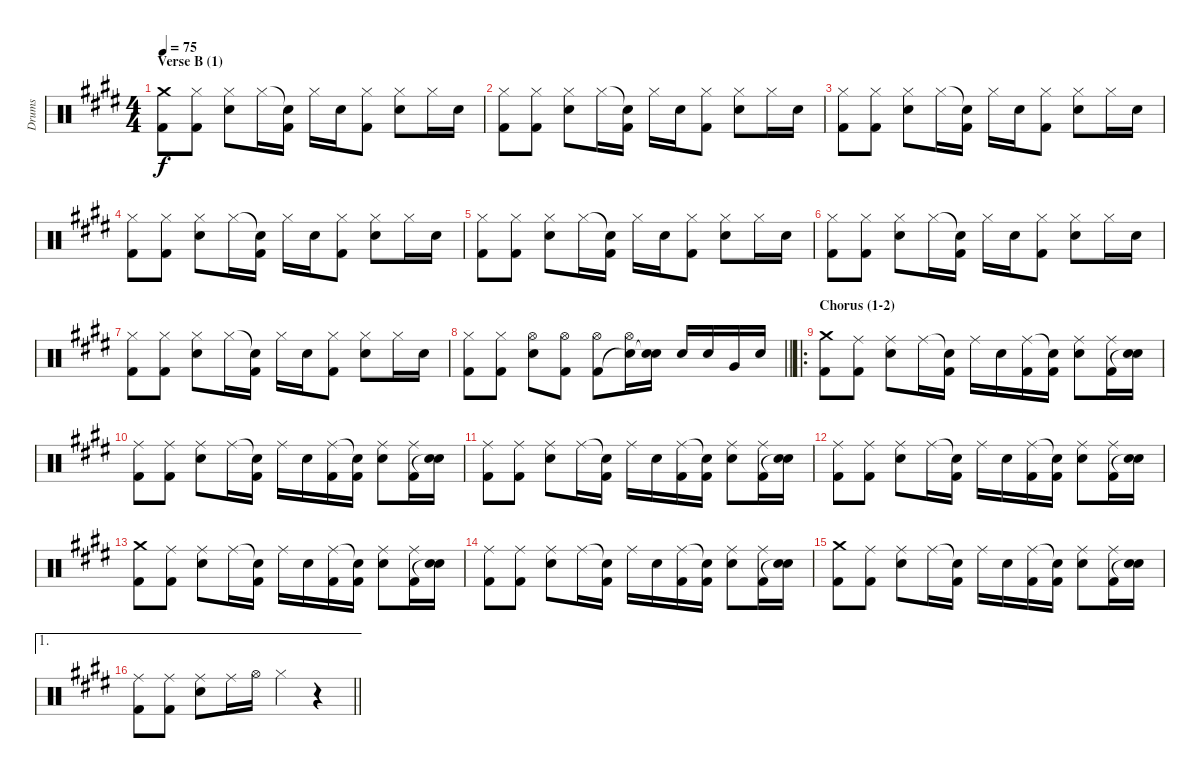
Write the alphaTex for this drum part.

\track ("Drums" "Drums") {instrument percussion}
\staff {score}
\articulation defaults
\ts (4 4)
\section ("" "Verse B (1)")
\tempo 75
\clef neutral
\ks c#minor
("Crash medium (hit)" "Kick (hit) 2").8{dy f} ("Hi-Hat (closed)" "Kick (hit) 2").8 ("Hi-Hat (closed)" "Electric Snare (hit)").8 "Hi-Hat (closed)".16 ("Snare (hit)"{t} "Kick (hit) 2").16 "Hi-Hat (closed)".16 "Electric Snare (hit)".16 ("Hi-Hat (closed)" "Kick (hit) 2").8 ("Hi-Hat (closed)" "Electric Snare (hit)").8 "Hi-Hat (closed)".16 "Electric Snare (hit)".16 |
("Hi-Hat (closed)" "Kick (hit) 2").8 ("Hi-Hat (closed)" "Kick (hit) 2").8 ("Hi-Hat (closed)" "Electric Snare (hit)").8 "Hi-Hat (closed)".16 ("Snare (hit)"{t} "Kick (hit) 2").16 "Hi-Hat (closed)".16 "Electric Snare (hit)".16 ("Hi-Hat (closed)" "Kick (hit) 2").8 ("Hi-Hat (closed)" "Electric Snare (hit)").8 "Hi-Hat (closed)".16 "Electric Snare (hit)".16 |
("Hi-Hat (closed)" "Kick (hit) 2").8 ("Hi-Hat (closed)" "Kick (hit) 2").8 ("Hi-Hat (closed)" "Electric Snare (hit)").8 "Hi-Hat (closed)".16 ("Snare (hit)"{t} "Kick (hit) 2").16 "Hi-Hat (closed)".16 "Electric Snare (hit)".16 ("Hi-Hat (closed)" "Kick (hit) 2").8 ("Hi-Hat (closed)" "Electric Snare (hit)").8 "Hi-Hat (closed)".16 "Electric Snare (hit)".16 |
("Hi-Hat (closed)" "Kick (hit) 2").8 ("Hi-Hat (closed)" "Kick (hit) 2").8 ("Hi-Hat (closed)" "Electric Snare (hit)").8 "Hi-Hat (closed)".16 ("Snare (hit)"{t} "Kick (hit) 2").16 "Hi-Hat (closed)".16 "Electric Snare (hit)".16 ("Hi-Hat (closed)" "Kick (hit) 2").8 ("Hi-Hat (closed)" "Electric Snare (hit)").8 "Hi-Hat (closed)".16 "Electric Snare (hit)".16 |
("Hi-Hat (closed)" "Kick (hit) 2").8 ("Hi-Hat (closed)" "Kick (hit) 2").8 ("Hi-Hat (closed)" "Electric Snare (hit)").8 "Hi-Hat (closed)".16 ("Snare (hit)"{t} "Kick (hit) 2").16 "Hi-Hat (closed)".16 "Electric Snare (hit)".16 ("Hi-Hat (closed)" "Kick (hit) 2").8 ("Hi-Hat (closed)" "Electric Snare (hit)").8 "Hi-Hat (closed)".16 "Electric Snare (hit)".16 |
("Hi-Hat (closed)" "Kick (hit) 2").8 ("Hi-Hat (closed)" "Kick (hit) 2").8 ("Hi-Hat (closed)" "Electric Snare (hit)").8 "Hi-Hat (closed)".16 ("Snare (hit)"{t} "Kick (hit) 2").16 "Hi-Hat (closed)".16 "Electric Snare (hit)".16 ("Hi-Hat (closed)" "Kick (hit) 2").8 ("Hi-Hat (closed)" "Electric Snare (hit)").8 "Hi-Hat (closed)".16 "Electric Snare (hit)".16 |
("Hi-Hat (closed)" "Kick (hit) 2").8 ("Hi-Hat (closed)" "Kick (hit) 2").8 ("Hi-Hat (closed)" "Electric Snare (hit)").8 "Hi-Hat (closed)".16 ("Snare (hit)"{t} "Kick (hit) 2").16 "Hi-Hat (closed)".16 "Electric Snare (hit)".16 ("Hi-Hat (closed)" "Kick (hit) 2").8 ("Hi-Hat (closed)" "Electric Snare (hit)").8 "Hi-Hat (closed)".16 "Electric Snare (hit)".16 |
\barLineRight lightlight
("Hi-Hat (closed)" "Kick (hit) 2").8 ("Hi-Hat (closed)" "Kick (hit) 2").8 ("Hi-Hat (open)" "Electric Snare (hit)").8 ("Hi-Hat (open)" "Kick (hit) 2").8 ("Hi-Hat (open)" "Kick (hit) 2").8 ("Hi-Hat (open)" "Snare (hit)"{t}).16 ("Electric Snare (hit)" "Snare (hit)"{t}).16 "Electric Snare (hit)".16 "Electric Snare (hit)".16 "Very Low Tom (hit)".16 "Electric Snare (hit)".16 |
\ro
\section ("" "Chorus (1-2)")
("Crash medium (hit)" "Kick (hit) 2").8 ("Ride (middle)" "Kick (hit) 2").8 ("Ride (middle)" "Electric Snare (hit)").8 "Ride (middle)".16 ("Snare (hit)"{t} "Kick (hit) 2").16 "Ride (middle)".16 "Electric Snare (hit)".16 ("Ride (middle)" "Kick (hit) 2").16 ("Snare (hit)"{t} "Kick (hit) 2").16 ("Ride (middle)" "Electric Snare (hit)").8 ("Ride (middle)" "Kick (hit) 2").16 ("Electric Snare (hit)" "Snare (hit)"{t}).16 |
("Ride (middle)" "Kick (hit) 2").8 ("Ride (middle)" "Kick (hit) 2").8 ("Ride (middle)" "Electric Snare (hit)").8 "Ride (middle)".16 ("Snare (hit)"{t} "Kick (hit) 2").16 "Ride (middle)".16 "Electric Snare (hit)".16 ("Ride (middle)" "Kick (hit) 2").16 ("Snare (hit)"{t} "Kick (hit) 2").16 ("Ride (middle)" "Electric Snare (hit)").8 ("Ride (middle)" "Kick (hit) 2").16 ("Electric Snare (hit)" "Snare (hit)"{t}).16 |
("Ride (middle)" "Kick (hit) 2").8 ("Ride (middle)" "Kick (hit) 2").8 ("Ride (middle)" "Electric Snare (hit)").8 "Ride (middle)".16 ("Snare (hit)"{t} "Kick (hit) 2").16 "Ride (middle)".16 "Electric Snare (hit)".16 ("Ride (middle)" "Kick (hit) 2").16 ("Snare (hit)"{t} "Kick (hit) 2").16 ("Ride (middle)" "Electric Snare (hit)").8 ("Ride (middle)" "Kick (hit) 2").16 ("Electric Snare (hit)" "Snare (hit)"{t}).16 |
("Ride (middle)" "Kick (hit) 2").8 ("Ride (middle)" "Kick (hit) 2").8 ("Ride (middle)" "Electric Snare (hit)").8 "Ride (middle)".16 ("Snare (hit)"{t} "Kick (hit) 2").16 "Ride (middle)".16 "Electric Snare (hit)".16 ("Ride (middle)" "Kick (hit) 2").16 ("Snare (hit)"{t} "Kick (hit) 2").16 ("Ride (middle)" "Electric Snare (hit)").8 ("Ride (middle)" "Kick (hit) 2").16 ("Electric Snare (hit)" "Snare (hit)"{t}).16 |
("Crash medium (hit)" "Kick (hit) 2").8 ("Ride (middle)" "Kick (hit) 2").8 ("Ride (middle)" "Electric Snare (hit)").8 "Ride (middle)".16 ("Snare (hit)"{t} "Kick (hit) 2").16 "Ride (middle)".16 "Electric Snare (hit)".16 ("Ride (middle)" "Kick (hit) 2").16 ("Snare (hit)"{t} "Kick (hit) 2").16 ("Ride (middle)" "Electric Snare (hit)").8 ("Ride (middle)" "Kick (hit) 2").16 ("Electric Snare (hit)" "Snare (hit)"{t}).16 |
("Ride (middle)" "Kick (hit) 2").8 ("Ride (middle)" "Kick (hit) 2").8 ("Ride (middle)" "Electric Snare (hit)").8 "Ride (middle)".16 ("Snare (hit)"{t} "Kick (hit) 2").16 "Ride (middle)".16 "Electric Snare (hit)".16 ("Ride (middle)" "Kick (hit) 2").16 ("Snare (hit)"{t} "Kick (hit) 2").16 ("Ride (middle)" "Electric Snare (hit)").8 ("Ride (middle)" "Kick (hit) 2").16 ("Electric Snare (hit)" "Snare (hit)"{t}).16 |
("Crash medium (hit)" "Kick (hit) 2").8 ("Ride (middle)" "Kick (hit) 2").8 ("Ride (middle)" "Electric Snare (hit)").8 "Ride (middle)".16 ("Snare (hit)"{t} "Kick (hit) 2").16 "Ride (middle)".16 "Electric Snare (hit)".16 ("Ride (middle)" "Kick (hit) 2").16 ("Snare (hit)"{t} "Kick (hit) 2").16 ("Ride (middle)" "Electric Snare (hit)").8 ("Ride (middle)" "Kick (hit) 2").16 ("Electric Snare (hit)" "Snare (hit)"{t}).16 |
\ae 1
\barLineRight lightlight
("Ride (middle)" "Kick (hit) 2").8 ("Ride (middle)" "Kick (hit) 2").8 ("Ride (middle)" "Electric Snare (hit)").8 "Ride (middle)".16 "Hi-Hat (open)".16 "Hi-Hat (closed)".4 r.4
